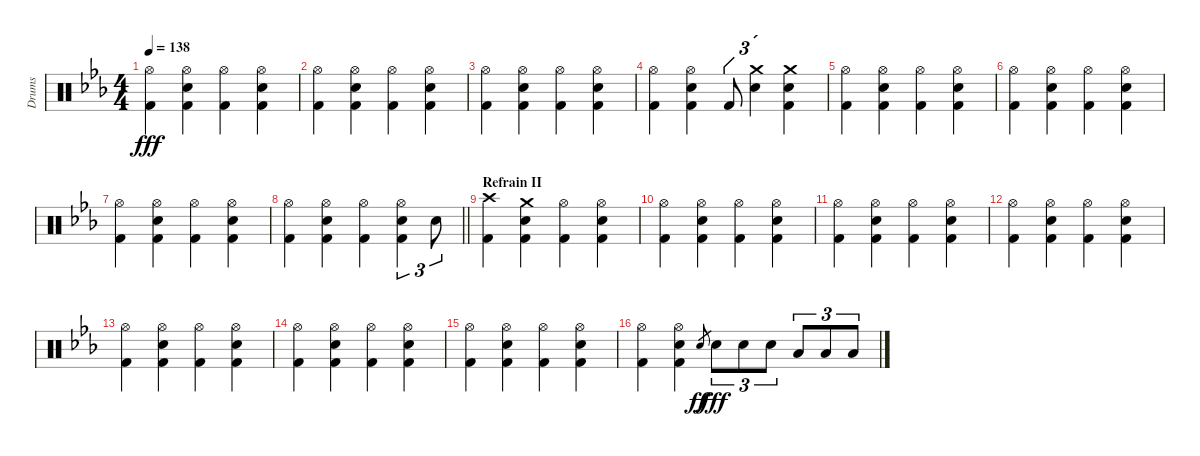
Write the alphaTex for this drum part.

\track ("Drums" "Drums") {instrument percussion}
\staff {score}
\articulation defaults
\ts (4 4)
\tempo 138
\clef neutral
\ks eb
("Hi-Hat (open)" "Kick (hit) 2").4{dy fff} ("Hi-Hat (open)" "Snare (hit) 2" "Kick (hit) 2").4 ("Hi-Hat (open)" "Kick (hit) 2").4 ("Hi-Hat (open)" "Snare (hit) 2" "Kick (hit) 2").4 |
("Hi-Hat (open)" "Kick (hit) 2").4 ("Hi-Hat (open)" "Snare (hit) 2" "Kick (hit) 2").4 ("Hi-Hat (open)" "Kick (hit) 2").4 ("Hi-Hat (open)" "Snare (hit) 2" "Kick (hit) 2").4 |
("Hi-Hat (open)" "Kick (hit) 2").4 ("Hi-Hat (open)" "Snare (hit) 2" "Kick (hit) 2").4 ("Hi-Hat (open)" "Kick (hit) 2").4 ("Hi-Hat (open)" "Snare (hit) 2" "Kick (hit) 2").4 |
("Hi-Hat (open)" "Kick (hit) 2").4 ("Hi-Hat (open)" "Snare (hit) 2" "Kick (hit) 2").4 "Kick (hit) 2".8{tu (3 2)} ("Crash medium (hit)" "Snare (hit) 2").4{tu (3 2)} ("Crash medium (hit)" "Snare (hit) 2" "Kick (hit) 2").4 |
("Hi-Hat (open)" "Kick (hit) 2").4 ("Hi-Hat (open)" "Snare (hit) 2" "Kick (hit) 2").4 ("Hi-Hat (open)" "Kick (hit) 2").4 ("Hi-Hat (open)" "Snare (hit) 2" "Kick (hit) 2").4 |
("Hi-Hat (open)" "Kick (hit) 2").4 ("Hi-Hat (open)" "Snare (hit) 2" "Kick (hit) 2").4 ("Hi-Hat (open)" "Kick (hit) 2").4 ("Hi-Hat (open)" "Snare (hit) 2" "Kick (hit) 2").4 |
("Hi-Hat (open)" "Kick (hit) 2").4 ("Hi-Hat (open)" "Snare (hit) 2" "Kick (hit) 2").4 ("Hi-Hat (open)" "Kick (hit) 2").4 ("Hi-Hat (open)" "Snare (hit) 2" "Kick (hit) 2").4 |
\barLineRight lightlight
("Hi-Hat (open)" "Kick (hit) 2").4 ("Hi-Hat (open)" "Snare (hit) 2" "Kick (hit) 2").4 ("Hi-Hat (open)" "Kick (hit) 2").4 ("Hi-Hat (open)" "Snare (hit) 2" "Kick (hit) 2").4{tu (3 2)} "Snare (hit) 2".8{tu (3 2)} |
\section ("" "Refrain II")
("Crash high (hit)" "Kick (hit) 2").4 ("Crash medium (hit)" "Snare (hit) 2" "Kick (hit) 2").4 ("Hi-Hat (open)" "Kick (hit) 2").4 ("Hi-Hat (open)" "Snare (hit) 2" "Kick (hit) 2").4 |
("Hi-Hat (open)" "Kick (hit) 2").4 ("Hi-Hat (open)" "Snare (hit) 2" "Kick (hit) 2").4 ("Hi-Hat (open)" "Kick (hit) 2").4 ("Hi-Hat (open)" "Snare (hit) 2" "Kick (hit) 2").4 |
("Hi-Hat (open)" "Kick (hit) 2").4 ("Hi-Hat (open)" "Snare (hit) 2" "Kick (hit) 2").4 ("Hi-Hat (open)" "Kick (hit) 2").4 ("Hi-Hat (open)" "Snare (hit) 2" "Kick (hit) 2").4 |
("Hi-Hat (open)" "Kick (hit) 2").4 ("Hi-Hat (open)" "Snare (hit) 2" "Kick (hit) 2").4 ("Hi-Hat (open)" "Kick (hit) 2").4 ("Hi-Hat (open)" "Snare (hit) 2" "Kick (hit) 2").4 |
("Hi-Hat (open)" "Kick (hit) 2").4 ("Hi-Hat (open)" "Snare (hit) 2" "Kick (hit) 2").4 ("Hi-Hat (open)" "Kick (hit) 2").4 ("Hi-Hat (open)" "Snare (hit) 2" "Kick (hit) 2").4 |
("Hi-Hat (open)" "Kick (hit) 2").4 ("Hi-Hat (open)" "Snare (hit) 2" "Kick (hit) 2").4 ("Hi-Hat (open)" "Kick (hit) 2").4 ("Hi-Hat (open)" "Snare (hit) 2" "Kick (hit) 2").4 |
("Hi-Hat (open)" "Kick (hit) 2").4 ("Hi-Hat (open)" "Snare (hit) 2" "Kick (hit) 2").4 ("Hi-Hat (open)" "Kick (hit) 2").4 ("Hi-Hat (open)" "Snare (hit) 2" "Kick (hit) 2").4 |
("Hi-Hat (open)" "Kick (hit) 2").4 ("Hi-Hat (open)" "Snare (hit) 2" "Kick (hit) 2").4 "Snare (hit)".8{gr dy ff} "Snare (hit) 2".8{tu (3 2) dy fff} "Snare (hit) 2".8{tu (3 2)} "Snare (hit) 2".8{tu (3 2)} "Low Tom (hit)".8{tu (3 2)} "Low Tom (hit)".8{tu (3 2)} "Low Tom (hit)".8{tu (3 2)}
